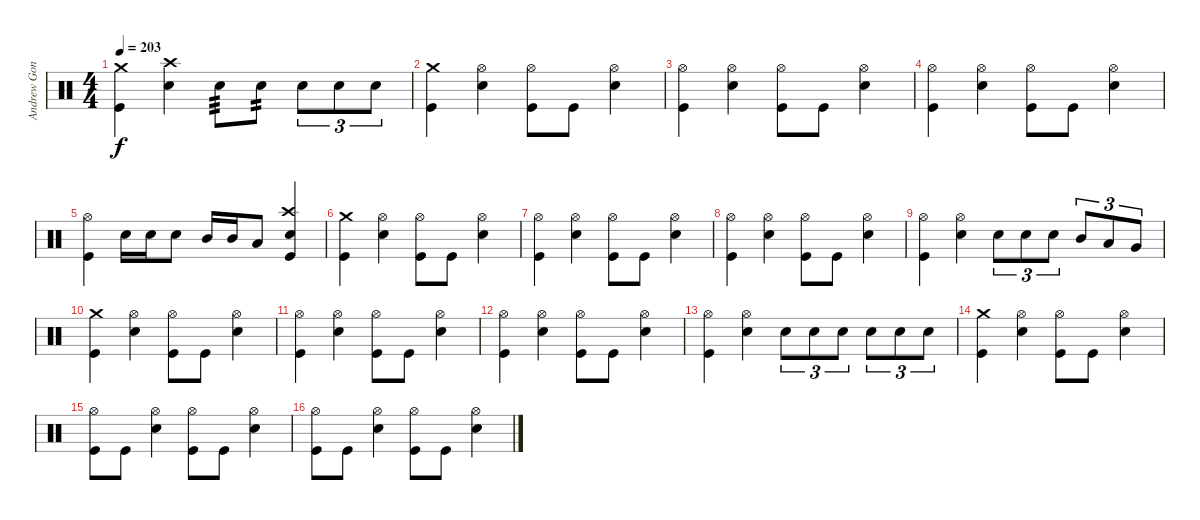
\track ("Andrew Gonzales" "Andrew Gon") {instrument percussion}
\staff {score}
\articulation defaults
\ts (4 4)
\tempo 203
\clef neutral
\ks c
("Crash medium (hit)" "Kick (hit)").4{dy f} ("Crash high (hit)" "Electric Snare (hit)").4 "Electric Snare (hit)".8{tp 3} "Electric Snare (hit)".8{tp 2} "Electric Snare (hit)".8{tu (3 2)} "Electric Snare (hit)".8{tu (3 2)} "Electric Snare (hit)".8{tu (3 2)} |
("Crash medium (hit)" "Kick (hit)").4 ("Hi-Hat (open)" "Electric Snare (hit)").4 ("Hi-Hat (open)" "Kick (hit)").8 "Kick (hit)".8 ("Hi-Hat (open)" "Electric Snare (hit)").4 |
("Hi-Hat (open)" "Kick (hit)").4 ("Hi-Hat (open)" "Electric Snare (hit)").4 ("Hi-Hat (open)" "Kick (hit)").8 "Kick (hit)".8 ("Hi-Hat (open)" "Electric Snare (hit)").4 |
("Hi-Hat (open)" "Kick (hit)").4 ("Hi-Hat (open)" "Electric Snare (hit)").4 ("Hi-Hat (open)" "Kick (hit)").8 "Kick (hit)".8 ("Hi-Hat (open)" "Electric Snare (hit)").4 |
("Hi-Hat (open)" "Kick (hit)").4 "Electric Snare (hit)".16 "Electric Snare (hit)".16 "Electric Snare (hit)".8 "Mid Tom (hit)".16 "Mid Tom (hit)".16 "Low Tom (hit)".8 ("Crash high (hit)" "Electric Snare (hit)" "Kick (hit)").4 |
("Crash medium (hit)" "Kick (hit)").4 ("Hi-Hat (open)" "Electric Snare (hit)").4 ("Hi-Hat (open)" "Kick (hit)").8 "Kick (hit)".8 ("Hi-Hat (open)" "Electric Snare (hit)").4 |
("Hi-Hat (open)" "Kick (hit)").4 ("Hi-Hat (open)" "Electric Snare (hit)").4 ("Hi-Hat (open)" "Kick (hit)").8 "Kick (hit)".8 ("Hi-Hat (open)" "Electric Snare (hit)").4 |
("Hi-Hat (open)" "Kick (hit)").4 ("Hi-Hat (open)" "Electric Snare (hit)").4 ("Hi-Hat (open)" "Kick (hit)").8 "Kick (hit)".8 ("Hi-Hat (open)" "Electric Snare (hit)").4 |
("Hi-Hat (open)" "Kick (hit)").4 ("Hi-Hat (open)" "Electric Snare (hit)").4 "Electric Snare (hit)".8{tu (3 2)} "Electric Snare (hit)".8{tu (3 2)} "Electric Snare (hit)".8{tu (3 2)} "Mid Tom (hit)".8{tu (3 2)} "Low Tom (hit)".8{tu (3 2)} "Very Low Tom (hit)".8{tu (3 2)} |
("Crash medium (hit)" "Kick (hit)").4 ("Hi-Hat (open)" "Electric Snare (hit)").4 ("Hi-Hat (open)" "Kick (hit)").8 "Kick (hit)".8 ("Hi-Hat (open)" "Electric Snare (hit)").4 |
("Hi-Hat (open)" "Kick (hit)").4 ("Hi-Hat (open)" "Electric Snare (hit)").4 ("Hi-Hat (open)" "Kick (hit)").8 "Kick (hit)".8 ("Hi-Hat (open)" "Electric Snare (hit)").4 |
("Hi-Hat (open)" "Kick (hit)").4 ("Hi-Hat (open)" "Electric Snare (hit)").4 ("Hi-Hat (open)" "Kick (hit)").8 "Kick (hit)".8 ("Hi-Hat (open)" "Electric Snare (hit)").4 |
("Hi-Hat (open)" "Kick (hit)").4 ("Hi-Hat (open)" "Electric Snare (hit)").4 "Electric Snare (hit)".8{tu (3 2)} "Electric Snare (hit)".8{tu (3 2)} "Electric Snare (hit)".8{tu (3 2)} "Electric Snare (hit)".8{tu (3 2)} "Electric Snare (hit)".8{tu (3 2)} "Electric Snare (hit)".8{tu (3 2)} |
("Crash medium (hit)" "Kick (hit)").4 ("Hi-Hat (open)" "Electric Snare (hit)").4 ("Hi-Hat (open)" "Kick (hit)").8 "Kick (hit)".8 ("Hi-Hat (open)" "Electric Snare (hit)").4 |
("Hi-Hat (open)" "Kick (hit)").8 "Kick (hit)".8 ("Hi-Hat (open)" "Electric Snare (hit)").4 ("Hi-Hat (open)" "Kick (hit)").8 "Kick (hit)".8 ("Hi-Hat (open)" "Electric Snare (hit)").4 |
("Hi-Hat (open)" "Kick (hit)").8 "Kick (hit)".8 ("Hi-Hat (open)" "Electric Snare (hit)").4 ("Hi-Hat (open)" "Kick (hit)").8 "Kick (hit)".8 ("Hi-Hat (open)" "Electric Snare (hit)").4
